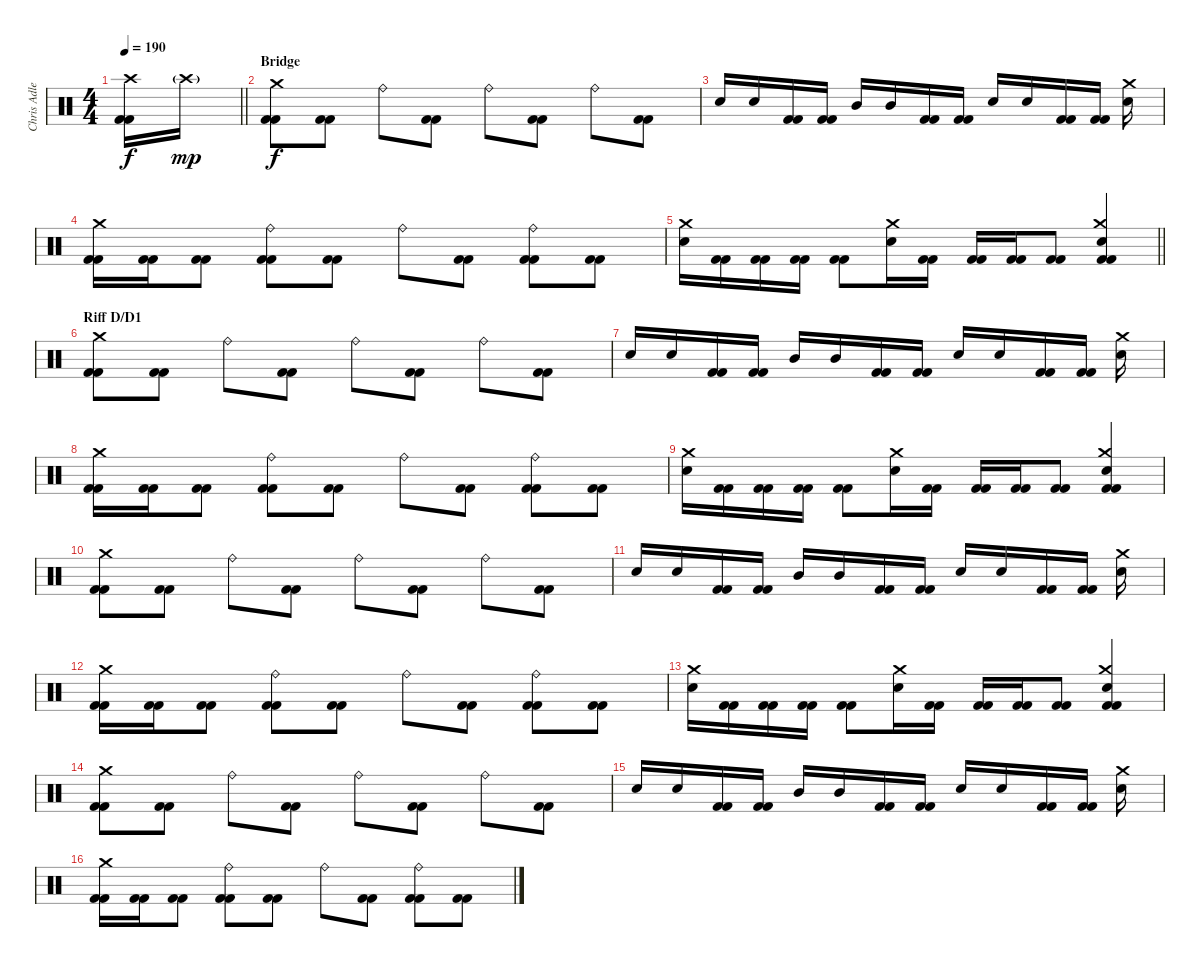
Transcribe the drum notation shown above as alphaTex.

\track ("Chris Adler" "Chris Adle") {instrument percussion}
\staff {score}
\articulation defaults
\ts (4 4)
\tempo 190
\clef neutral
\barLineRight lightlight
\ks c
("Kick (hit) 2" "Kick (hit) 2" "Crash high (hit)").16{dy f} "Crash high (hit)"{g}.16{dy mp} |
\section ("" "Bridge")
("Crash medium (hit)" "Kick (hit) 2" "Kick (hit) 2").8{dy f} ("Kick (hit) 2" "Kick (hit) 2").8 "Ride (bell)".8 ("Kick (hit) 2" "Kick (hit) 2").8 "Ride (bell)".8 ("Kick (hit) 2" "Kick (hit) 2").8 "Ride (bell)".8 ("Kick (hit) 2" "Kick (hit) 2").8 |
"Electric Snare (hit)".16 "Electric Snare (hit)".16 ("Kick (hit) 2" "Kick (hit) 2").16 ("Kick (hit) 2" "Kick (hit) 2").16 "Mid Tom (hit)".16 "Mid Tom (hit)".16 ("Kick (hit) 2" "Kick (hit) 2").16 ("Kick (hit) 2" "Kick (hit) 2").16 "Electric Snare (hit)".16 "Electric Snare (hit)".16 ("Kick (hit) 2" "Kick (hit) 2").16 ("Kick (hit) 2" "Kick (hit) 2").16 ("Electric Snare (hit)" "Crash medium (hit)").16 |
("Crash medium (hit)" "Kick (hit) 2" "Kick (hit) 2").16 ("Kick (hit) 2" "Kick (hit) 2").16 ("Kick (hit) 2" "Kick (hit) 2").8 ("Ride (bell)" "Kick (hit) 2" "Kick (hit) 2").8 ("Kick (hit) 2" "Kick (hit) 2").8 "Ride (bell)".8 ("Kick (hit) 2" "Kick (hit) 2").8 ("Ride (bell)" "Kick (hit) 2" "Kick (hit) 2").8 ("Kick (hit) 2" "Kick (hit) 2").8 |
\barLineRight lightlight
("Crash medium (hit)" "Electric Snare (hit)").16 ("Kick (hit) 2" "Kick (hit) 2").16 ("Kick (hit) 2" "Kick (hit) 2").16 ("Kick (hit) 2" "Kick (hit) 2").16 ("Kick (hit) 2" "Kick (hit) 2").8 ("Crash medium (hit)" "Electric Snare (hit)").16 ("Kick (hit) 2" "Kick (hit) 2").16 ("Kick (hit) 2" "Kick (hit) 2").16 ("Kick (hit) 2" "Kick (hit) 2").16 ("Kick (hit) 2" "Kick (hit) 2").8 ("Crash medium (hit)" "Electric Snare (hit)" "Kick (hit) 2" "Kick (hit) 2").4 |
\section ("" "Riff D/D1")
("Crash medium (hit)" "Kick (hit) 2" "Kick (hit) 2").8 ("Kick (hit) 2" "Kick (hit) 2").8 "Ride (bell)".8 ("Kick (hit) 2" "Kick (hit) 2").8 "Ride (bell)".8 ("Kick (hit) 2" "Kick (hit) 2").8 "Ride (bell)".8 ("Kick (hit) 2" "Kick (hit) 2").8 |
"Electric Snare (hit)".16 "Electric Snare (hit)".16 ("Kick (hit) 2" "Kick (hit) 2").16 ("Kick (hit) 2" "Kick (hit) 2").16 "Mid Tom (hit)".16 "Mid Tom (hit)".16 ("Kick (hit) 2" "Kick (hit) 2").16 ("Kick (hit) 2" "Kick (hit) 2").16 "Electric Snare (hit)".16 "Electric Snare (hit)".16 ("Kick (hit) 2" "Kick (hit) 2").16 ("Kick (hit) 2" "Kick (hit) 2").16 ("Electric Snare (hit)" "Crash medium (hit)").16 |
("Crash medium (hit)" "Kick (hit) 2" "Kick (hit) 2").16 ("Kick (hit) 2" "Kick (hit) 2").16 ("Kick (hit) 2" "Kick (hit) 2").8 ("Ride (bell)" "Kick (hit) 2" "Kick (hit) 2").8 ("Kick (hit) 2" "Kick (hit) 2").8 "Ride (bell)".8 ("Kick (hit) 2" "Kick (hit) 2").8 ("Ride (bell)" "Kick (hit) 2" "Kick (hit) 2").8 ("Kick (hit) 2" "Kick (hit) 2").8 |
("Crash medium (hit)" "Electric Snare (hit)").16 ("Kick (hit) 2" "Kick (hit) 2").16 ("Kick (hit) 2" "Kick (hit) 2").16 ("Kick (hit) 2" "Kick (hit) 2").16 ("Kick (hit) 2" "Kick (hit) 2").8 ("Crash medium (hit)" "Electric Snare (hit)").16 ("Kick (hit) 2" "Kick (hit) 2").16 ("Kick (hit) 2" "Kick (hit) 2").16 ("Kick (hit) 2" "Kick (hit) 2").16 ("Kick (hit) 2" "Kick (hit) 2").8 ("Crash medium (hit)" "Electric Snare (hit)" "Kick (hit) 2" "Kick (hit) 2").4 |
("Crash medium (hit)" "Kick (hit) 2" "Kick (hit) 2").8 ("Kick (hit) 2" "Kick (hit) 2").8 "Ride (bell)".8 ("Kick (hit) 2" "Kick (hit) 2").8 "Ride (bell)".8 ("Kick (hit) 2" "Kick (hit) 2").8 "Ride (bell)".8 ("Kick (hit) 2" "Kick (hit) 2").8 |
"Electric Snare (hit)".16 "Electric Snare (hit)".16 ("Kick (hit) 2" "Kick (hit) 2").16 ("Kick (hit) 2" "Kick (hit) 2").16 "Mid Tom (hit)".16 "Mid Tom (hit)".16 ("Kick (hit) 2" "Kick (hit) 2").16 ("Kick (hit) 2" "Kick (hit) 2").16 "Electric Snare (hit)".16 "Electric Snare (hit)".16 ("Kick (hit) 2" "Kick (hit) 2").16 ("Kick (hit) 2" "Kick (hit) 2").16 ("Electric Snare (hit)" "Crash medium (hit)").16 |
("Crash medium (hit)" "Kick (hit) 2" "Kick (hit) 2").16 ("Kick (hit) 2" "Kick (hit) 2").16 ("Kick (hit) 2" "Kick (hit) 2").8 ("Ride (bell)" "Kick (hit) 2" "Kick (hit) 2").8 ("Kick (hit) 2" "Kick (hit) 2").8 "Ride (bell)".8 ("Kick (hit) 2" "Kick (hit) 2").8 ("Ride (bell)" "Kick (hit) 2" "Kick (hit) 2").8 ("Kick (hit) 2" "Kick (hit) 2").8 |
("Crash medium (hit)" "Electric Snare (hit)").16 ("Kick (hit) 2" "Kick (hit) 2").16 ("Kick (hit) 2" "Kick (hit) 2").16 ("Kick (hit) 2" "Kick (hit) 2").16 ("Kick (hit) 2" "Kick (hit) 2").8 ("Crash medium (hit)" "Electric Snare (hit)").16 ("Kick (hit) 2" "Kick (hit) 2").16 ("Kick (hit) 2" "Kick (hit) 2").16 ("Kick (hit) 2" "Kick (hit) 2").16 ("Kick (hit) 2" "Kick (hit) 2").8 ("Crash medium (hit)" "Electric Snare (hit)" "Kick (hit) 2" "Kick (hit) 2").4 |
("Crash medium (hit)" "Kick (hit) 2" "Kick (hit) 2").8 ("Kick (hit) 2" "Kick (hit) 2").8 "Ride (bell)".8 ("Kick (hit) 2" "Kick (hit) 2").8 "Ride (bell)".8 ("Kick (hit) 2" "Kick (hit) 2").8 "Ride (bell)".8 ("Kick (hit) 2" "Kick (hit) 2").8 |
"Electric Snare (hit)".16 "Electric Snare (hit)".16 ("Kick (hit) 2" "Kick (hit) 2").16 ("Kick (hit) 2" "Kick (hit) 2").16 "Mid Tom (hit)".16 "Mid Tom (hit)".16 ("Kick (hit) 2" "Kick (hit) 2").16 ("Kick (hit) 2" "Kick (hit) 2").16 "Electric Snare (hit)".16 "Electric Snare (hit)".16 ("Kick (hit) 2" "Kick (hit) 2").16 ("Kick (hit) 2" "Kick (hit) 2").16 ("Electric Snare (hit)" "Crash medium (hit)").16 |
("Crash medium (hit)" "Kick (hit) 2" "Kick (hit) 2").16 ("Kick (hit) 2" "Kick (hit) 2").16 ("Kick (hit) 2" "Kick (hit) 2").8 ("Ride (bell)" "Kick (hit) 2" "Kick (hit) 2").8 ("Kick (hit) 2" "Kick (hit) 2").8 "Ride (bell)".8 ("Kick (hit) 2" "Kick (hit) 2").8 ("Ride (bell)" "Kick (hit) 2" "Kick (hit) 2").8 ("Kick (hit) 2" "Kick (hit) 2").8
